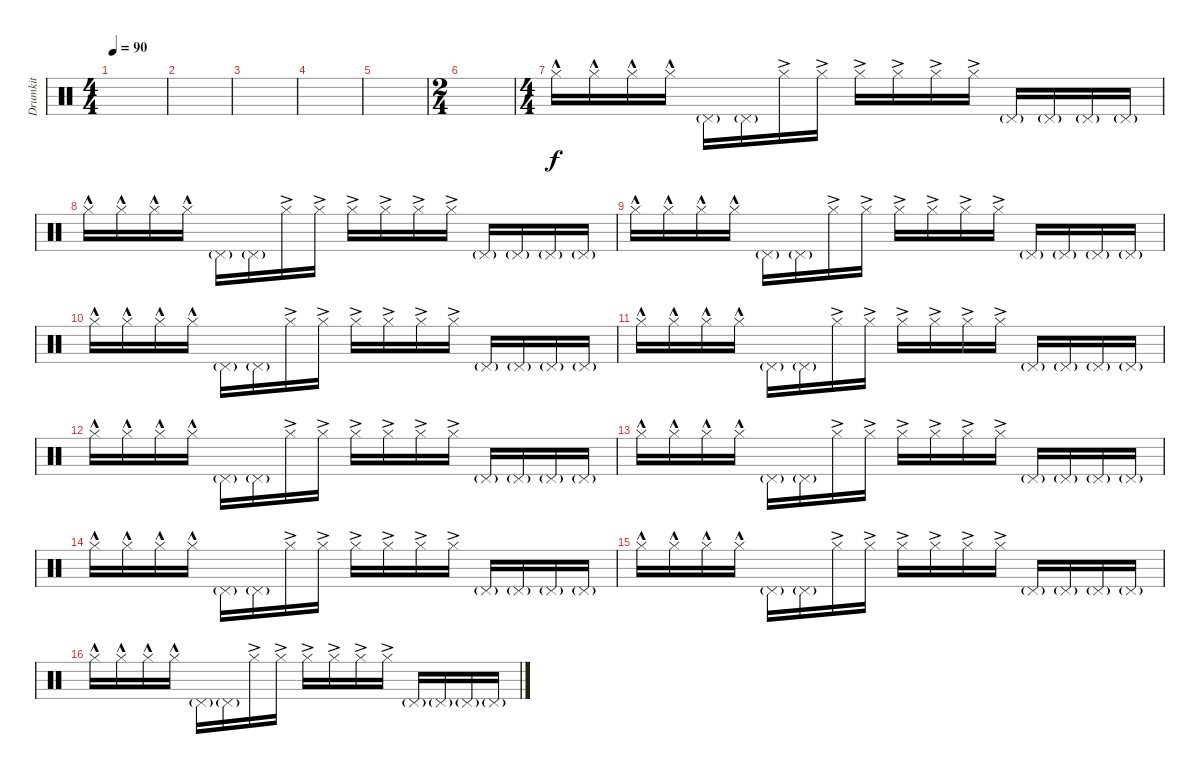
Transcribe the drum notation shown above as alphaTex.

\track ("Drumkit" "Drumkit") {instrument percussion}
\staff {score}
\articulation defaults
\ts (4 4)
\tempo 90
\clef neutral
\ks c
|
|
|
|
|
\ts (2 4)
|
\ts (4 4)
"Hi-Hat (closed)"{hac}.16 "Hi-Hat (closed)"{hac}.16 "Hi-Hat (closed)"{hac}.16 "Hi-Hat (closed)"{hac}.16 "Pedal Hi-Hat (hit)"{g}.16 "Pedal Hi-Hat (hit)"{g}.16 "Hi-Hat (closed)"{ac}.16 "Hi-Hat (closed)"{ac}.16 "Hi-Hat (closed)"{ac}.16 "Hi-Hat (closed)"{ac}.16 "Hi-Hat (closed)"{ac}.16 "Hi-Hat (closed)"{ac}.16 "Pedal Hi-Hat (hit)"{g}.16 "Pedal Hi-Hat (hit)"{g}.16 "Pedal Hi-Hat (hit)"{g}.16 "Pedal Hi-Hat (hit)"{g}.16 |
"Hi-Hat (closed)"{hac}.16 "Hi-Hat (closed)"{hac}.16 "Hi-Hat (closed)"{hac}.16 "Hi-Hat (closed)"{hac}.16 "Pedal Hi-Hat (hit)"{g}.16 "Pedal Hi-Hat (hit)"{g}.16 "Hi-Hat (closed)"{ac}.16 "Hi-Hat (closed)"{ac}.16 "Hi-Hat (closed)"{ac}.16 "Hi-Hat (closed)"{ac}.16 "Hi-Hat (closed)"{ac}.16 "Hi-Hat (closed)"{ac}.16 "Pedal Hi-Hat (hit)"{g}.16 "Pedal Hi-Hat (hit)"{g}.16 "Pedal Hi-Hat (hit)"{g}.16 "Pedal Hi-Hat (hit)"{g}.16 |
"Hi-Hat (closed)"{hac}.16 "Hi-Hat (closed)"{hac}.16 "Hi-Hat (closed)"{hac}.16 "Hi-Hat (closed)"{hac}.16 "Pedal Hi-Hat (hit)"{g}.16 "Pedal Hi-Hat (hit)"{g}.16 "Hi-Hat (closed)"{ac}.16 "Hi-Hat (closed)"{ac}.16 "Hi-Hat (closed)"{ac}.16 "Hi-Hat (closed)"{ac}.16 "Hi-Hat (closed)"{ac}.16 "Hi-Hat (closed)"{ac}.16 "Pedal Hi-Hat (hit)"{g}.16 "Pedal Hi-Hat (hit)"{g}.16 "Pedal Hi-Hat (hit)"{g}.16 "Pedal Hi-Hat (hit)"{g}.16 |
"Hi-Hat (closed)"{hac}.16 "Hi-Hat (closed)"{hac}.16 "Hi-Hat (closed)"{hac}.16 "Hi-Hat (closed)"{hac}.16 "Pedal Hi-Hat (hit)"{g}.16 "Pedal Hi-Hat (hit)"{g}.16 "Hi-Hat (closed)"{ac}.16 "Hi-Hat (closed)"{ac}.16 "Hi-Hat (closed)"{ac}.16 "Hi-Hat (closed)"{ac}.16 "Hi-Hat (closed)"{ac}.16 "Hi-Hat (closed)"{ac}.16 "Pedal Hi-Hat (hit)"{g}.16 "Pedal Hi-Hat (hit)"{g}.16 "Pedal Hi-Hat (hit)"{g}.16 "Pedal Hi-Hat (hit)"{g}.16 |
"Hi-Hat (closed)"{hac}.16 "Hi-Hat (closed)"{hac}.16 "Hi-Hat (closed)"{hac}.16 "Hi-Hat (closed)"{hac}.16 "Pedal Hi-Hat (hit)"{g}.16 "Pedal Hi-Hat (hit)"{g}.16 "Hi-Hat (closed)"{ac}.16 "Hi-Hat (closed)"{ac}.16 "Hi-Hat (closed)"{ac}.16 "Hi-Hat (closed)"{ac}.16 "Hi-Hat (closed)"{ac}.16 "Hi-Hat (closed)"{ac}.16 "Pedal Hi-Hat (hit)"{g}.16 "Pedal Hi-Hat (hit)"{g}.16 "Pedal Hi-Hat (hit)"{g}.16 "Pedal Hi-Hat (hit)"{g}.16 |
"Hi-Hat (closed)"{hac}.16 "Hi-Hat (closed)"{hac}.16 "Hi-Hat (closed)"{hac}.16 "Hi-Hat (closed)"{hac}.16 "Pedal Hi-Hat (hit)"{g}.16 "Pedal Hi-Hat (hit)"{g}.16 "Hi-Hat (closed)"{ac}.16 "Hi-Hat (closed)"{ac}.16 "Hi-Hat (closed)"{ac}.16 "Hi-Hat (closed)"{ac}.16 "Hi-Hat (closed)"{ac}.16 "Hi-Hat (closed)"{ac}.16 "Pedal Hi-Hat (hit)"{g}.16 "Pedal Hi-Hat (hit)"{g}.16 "Pedal Hi-Hat (hit)"{g}.16 "Pedal Hi-Hat (hit)"{g}.16 |
"Hi-Hat (closed)"{hac}.16 "Hi-Hat (closed)"{hac}.16 "Hi-Hat (closed)"{hac}.16 "Hi-Hat (closed)"{hac}.16 "Pedal Hi-Hat (hit)"{g}.16 "Pedal Hi-Hat (hit)"{g}.16 "Hi-Hat (closed)"{ac}.16 "Hi-Hat (closed)"{ac}.16 "Hi-Hat (closed)"{ac}.16 "Hi-Hat (closed)"{ac}.16 "Hi-Hat (closed)"{ac}.16 "Hi-Hat (closed)"{ac}.16 "Pedal Hi-Hat (hit)"{g}.16 "Pedal Hi-Hat (hit)"{g}.16 "Pedal Hi-Hat (hit)"{g}.16 "Pedal Hi-Hat (hit)"{g}.16 |
"Hi-Hat (closed)"{hac}.16 "Hi-Hat (closed)"{hac}.16 "Hi-Hat (closed)"{hac}.16 "Hi-Hat (closed)"{hac}.16 "Pedal Hi-Hat (hit)"{g}.16 "Pedal Hi-Hat (hit)"{g}.16 "Hi-Hat (closed)"{ac}.16 "Hi-Hat (closed)"{ac}.16 "Hi-Hat (closed)"{ac}.16 "Hi-Hat (closed)"{ac}.16 "Hi-Hat (closed)"{ac}.16 "Hi-Hat (closed)"{ac}.16 "Pedal Hi-Hat (hit)"{g}.16 "Pedal Hi-Hat (hit)"{g}.16 "Pedal Hi-Hat (hit)"{g}.16 "Pedal Hi-Hat (hit)"{g}.16 |
"Hi-Hat (closed)"{hac}.16 "Hi-Hat (closed)"{hac}.16 "Hi-Hat (closed)"{hac}.16 "Hi-Hat (closed)"{hac}.16 "Pedal Hi-Hat (hit)"{g}.16 "Pedal Hi-Hat (hit)"{g}.16 "Hi-Hat (closed)"{ac}.16 "Hi-Hat (closed)"{ac}.16 "Hi-Hat (closed)"{ac}.16 "Hi-Hat (closed)"{ac}.16 "Hi-Hat (closed)"{ac}.16 "Hi-Hat (closed)"{ac}.16 "Pedal Hi-Hat (hit)"{g}.16 "Pedal Hi-Hat (hit)"{g}.16 "Pedal Hi-Hat (hit)"{g}.16 "Pedal Hi-Hat (hit)"{g}.16 |
"Hi-Hat (closed)"{hac}.16 "Hi-Hat (closed)"{hac}.16 "Hi-Hat (closed)"{hac}.16 "Hi-Hat (closed)"{hac}.16 "Pedal Hi-Hat (hit)"{g}.16 "Pedal Hi-Hat (hit)"{g}.16 "Hi-Hat (closed)"{ac}.16 "Hi-Hat (closed)"{ac}.16 "Hi-Hat (closed)"{ac}.16 "Hi-Hat (closed)"{ac}.16 "Hi-Hat (closed)"{ac}.16 "Hi-Hat (closed)"{ac}.16 "Pedal Hi-Hat (hit)"{g}.16 "Pedal Hi-Hat (hit)"{g}.16 "Pedal Hi-Hat (hit)"{g}.16 "Pedal Hi-Hat (hit)"{g}.16
